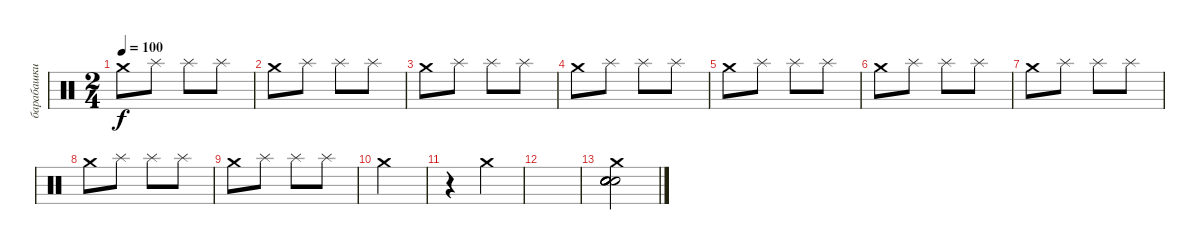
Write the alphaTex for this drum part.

\track ("барабашки high" "барабашки ") {instrument percussion}
\staff {score}
\articulation defaults
\ts (2 4)
\tempo 100
\clef neutral
\ks c "Crash medium (hit)".8{dy f} "Splash (hit)".8 "Splash (hit)".8 "Splash (hit)".8
|
"Crash medium (hit)".8 "Splash (hit)".8 "Splash (hit)".8 "Splash (hit)".8 |
"Crash medium (hit)".8 "Splash (hit)".8 "Splash (hit)".8 "Splash (hit)".8 |
"Crash medium (hit)".8 "Splash (hit)".8 "Splash (hit)".8 "Splash (hit)".8 |
"Crash medium (hit)".8 "Splash (hit)".8 "Splash (hit)".8 "Splash (hit)".8 |
"Crash medium (hit)".8 "Splash (hit)".8 "Splash (hit)".8 "Splash (hit)".8 |
"Crash medium (hit)".8 "Splash (hit)".8 "Splash (hit)".8 "Splash (hit)".8 |
"Crash medium (hit)".8 "Splash (hit)".8 "Splash (hit)".8 "Splash (hit)".8 |
"Crash medium (hit)".8 "Splash (hit)".8 "Splash (hit)".8 "Splash (hit)".8 |
"Crash medium (hit)".2 |
r.4 "Crash medium (hit)".4 |
|
("Crash medium (hit)" "Snare (hit) 2" "Snare (hit) 2" "Electric Snare (hit)" "Electric Snare (hit)" "Electric Snare (hit)").2
